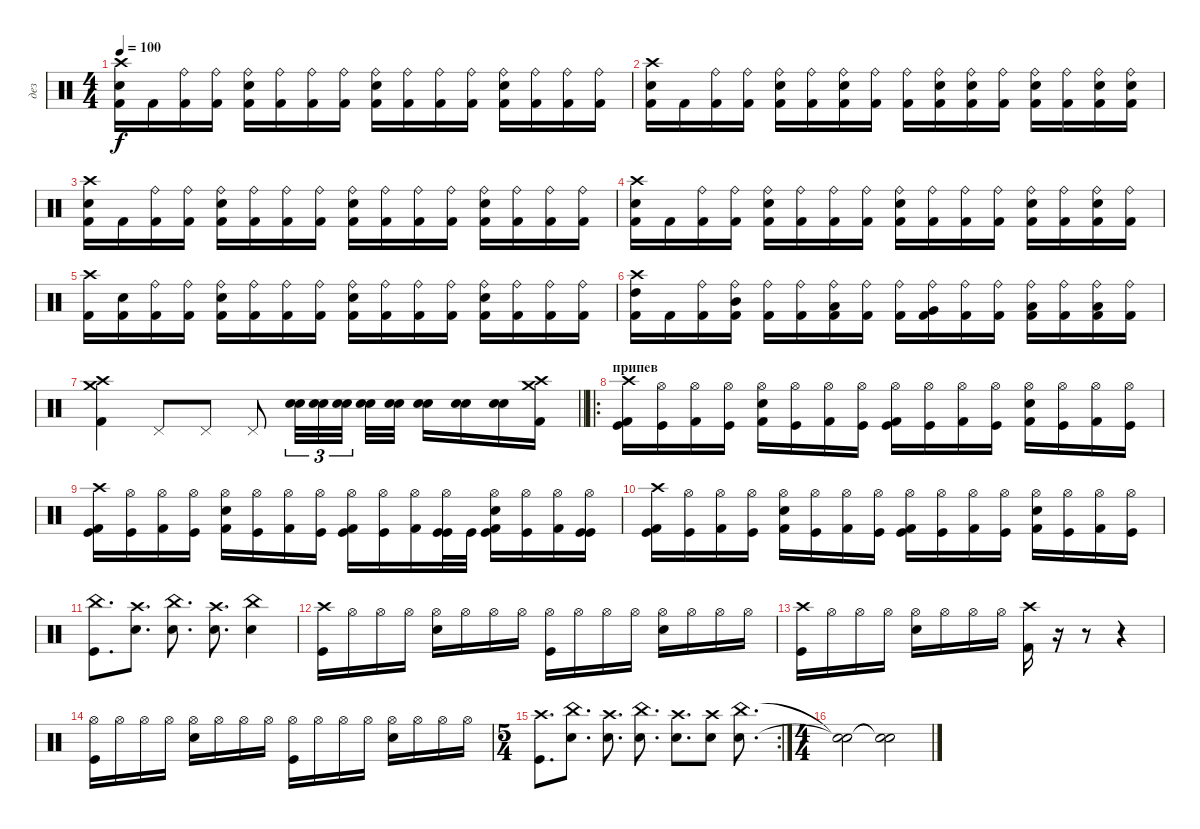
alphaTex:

\track ("дез" "дез") {instrument percussion}
\staff {score}
\articulation defaults
\ts (4 4)
\tempo 100
\clef neutral
\ks c
("Crash high (hit)" "Electric Snare (hit)" "Kick (hit) 2").16{dy f} "Kick (hit) 2".16 ("Ride (bell)" "Kick (hit) 2").16 ("Ride (bell)" "Kick (hit) 2").16 ("Ride (bell)" "Electric Snare (hit)" "Kick (hit) 2").16 ("Ride (bell)" "Kick (hit) 2").16 ("Ride (bell)" "Kick (hit) 2").16 ("Ride (bell)" "Kick (hit) 2").16 ("Ride (bell)" "Electric Snare (hit)" "Kick (hit) 2").16 ("Ride (bell)" "Kick (hit) 2").16 ("Ride (bell)" "Kick (hit) 2").16 ("Ride (bell)" "Kick (hit) 2").16 ("Ride (bell)" "Electric Snare (hit)" "Kick (hit) 2").16 ("Ride (bell)" "Kick (hit) 2").16 ("Ride (bell)" "Kick (hit) 2").16 ("Ride (bell)" "Kick (hit) 2").16 |
("Crash high (hit)" "Electric Snare (hit)" "Kick (hit) 2").16 "Kick (hit) 2".16 ("Ride (bell)" "Kick (hit) 2").16 ("Ride (bell)" "Kick (hit) 2").16 ("Ride (bell)" "Electric Snare (hit)" "Kick (hit) 2").16 ("Ride (bell)" "Kick (hit) 2").16 ("Ride (bell)" "Electric Snare (hit)" "Kick (hit) 2").16 ("Ride (bell)" "Kick (hit) 2").16 ("Ride (bell)" "Kick (hit) 2").16 ("Ride (bell)" "Electric Snare (hit)" "Kick (hit) 2").16 ("Ride (bell)" "Electric Snare (hit)" "Kick (hit) 2").16 ("Ride (bell)" "Kick (hit) 2").16 ("Ride (bell)" "Electric Snare (hit)" "Kick (hit) 2").16 ("Ride (bell)" "Kick (hit) 2").16 ("Ride (bell)" "Electric Snare (hit)" "Kick (hit) 2").16 ("Ride (bell)" "Electric Snare (hit)" "Kick (hit) 2").16 |
("Crash high (hit)" "Electric Snare (hit)" "Kick (hit) 2").16 "Kick (hit) 2".16 ("Ride (bell)" "Kick (hit) 2").16 ("Ride (bell)" "Kick (hit) 2").16 ("Ride (bell)" "Electric Snare (hit)" "Kick (hit) 2").16 ("Ride (bell)" "Kick (hit) 2").16 ("Ride (bell)" "Kick (hit) 2").16 ("Ride (bell)" "Kick (hit) 2").16 ("Ride (bell)" "Electric Snare (hit)" "Kick (hit) 2").16 ("Ride (bell)" "Kick (hit) 2").16 ("Ride (bell)" "Kick (hit) 2").16 ("Ride (bell)" "Kick (hit) 2").16 ("Ride (bell)" "Electric Snare (hit)" "Kick (hit) 2").16 ("Ride (bell)" "Kick (hit) 2").16 ("Ride (bell)" "Kick (hit) 2").16 ("Ride (bell)" "Kick (hit) 2").16 |
("Crash high (hit)" "Electric Snare (hit)" "Kick (hit) 2").16 "Kick (hit) 2".16 ("Ride (bell)" "Kick (hit) 2").16 ("Ride (bell)" "Kick (hit) 2").16 ("Ride (bell)" "Electric Snare (hit)" "Kick (hit) 2").16 ("Ride (bell)" "Kick (hit) 2").16 ("Ride (bell)" "Kick (hit) 2").16 ("Ride (bell)" "Kick (hit) 2").16 ("Ride (bell)" "Electric Snare (hit)" "Kick (hit) 2").16 ("Ride (bell)" "Kick (hit) 2").16 ("Ride (bell)" "Kick (hit) 2").16 ("Ride (bell)" "Kick (hit) 2").16 ("Ride (bell)" "Electric Snare (hit)" "Kick (hit) 2").16 ("Ride (bell)" "Kick (hit) 2").16 ("Ride (bell)" "Electric Snare (hit)" "Kick (hit) 2").16 ("Ride (bell)" "Kick (hit) 2").16 |
("Crash high (hit)" "Kick (hit) 2").16 ("Electric Snare (hit)" "Kick (hit) 2").16 ("Ride (bell)" "Kick (hit) 2").16 ("Ride (bell)" "Kick (hit) 2").16 ("Ride (bell)" "Electric Snare (hit)" "Kick (hit) 2").16 ("Ride (bell)" "Kick (hit) 2").16 ("Ride (bell)" "Kick (hit) 2").16 ("Ride (bell)" "Kick (hit) 2").16 ("Ride (bell)" "Electric Snare (hit)" "Kick (hit) 2").16 ("Ride (bell)" "Kick (hit) 2").16 ("Ride (bell)" "Kick (hit) 2").16 ("Ride (bell)" "Kick (hit) 2").16 ("Ride (bell)" "Electric Snare (hit)" "Kick (hit) 2").16 ("Ride (bell)" "Kick (hit) 2").16 ("Ride (bell)" "Kick (hit) 2").16 ("Ride (bell)" "Kick (hit) 2").16 |
("Crash high (hit)" "High Tom (hit)" "Kick (hit) 2").16 "Kick (hit) 2".16 ("Ride (bell)" "Kick (hit) 2").16 ("Ride (bell)" "Mid Tom (hit)" "Kick (hit) 2").16 ("Ride (bell)" "Kick (hit) 2").16 ("Ride (bell)" "Kick (hit) 2").16 ("Ride (bell)" "Low Tom (hit)" "Kick (hit) 2").16 ("Ride (bell)" "Kick (hit) 2").16 ("Ride (bell)" "Kick (hit) 2").16 ("Ride (bell)" "Very Low Tom (hit)" "Kick (hit) 2").16 ("Ride (bell)" "Kick (hit) 2").16 ("Ride (bell)" "Kick (hit) 2").16 ("Ride (bell)" "Low Floor Tom (hit)" "Kick (hit) 2").16 ("Ride (bell)" "Kick (hit) 2").16 ("Ride (bell)" "Low Floor Tom (hit)" "Kick (hit) 2").16 ("Ride (bell)" "Kick (hit) 2").16 |
\barLineRight lightlight
("Crash medium (hit)" "Crash high (hit)" "Kick (hit) 2").4 "Pedal Hi-Hat (hit)".8 "Pedal Hi-Hat (hit)".8 "Pedal Hi-Hat (hit)".8 ("Electric Snare (hit)" "Snare (hit) 2").32{tu (3 2)} ("Electric Snare (hit)" "Snare (hit) 2").32{tu (3 2)} ("Electric Snare (hit)" "Snare (hit) 2").32{tu (3 2) beam splitsecondary} ("Electric Snare (hit)" "Snare (hit) 2").32 ("Electric Snare (hit)" "Snare (hit) 2").32 ("Electric Snare (hit)" "Snare (hit) 2").16 ("Electric Snare (hit)" "Snare (hit) 2").16 ("Electric Snare (hit)" "Snare (hit) 2").16 ("Crash high (hit)" "Crash medium (hit)" "Kick (hit) 2").16 |
\ro
\section ("" "припев")
("Crash high (hit)" "Kick (hit) 2" "Kick (hit)").16 ("Hi-Hat (open)" "Kick (hit)").16 ("Hi-Hat (open)" "Kick (hit) 2").16 ("Hi-Hat (open)" "Kick (hit)").16 ("Hi-Hat (open)" "Kick (hit) 2" "Electric Snare (hit)").16 ("Hi-Hat (open)" "Kick (hit)").16 ("Hi-Hat (open)" "Kick (hit) 2").16 ("Hi-Hat (open)" "Kick (hit)").16 ("Hi-Hat (open)" "Kick (hit) 2" "Kick (hit)").16 ("Hi-Hat (open)" "Kick (hit)").16 ("Hi-Hat (open)" "Kick (hit) 2").16 ("Hi-Hat (open)" "Kick (hit)").16 ("Hi-Hat (open)" "Kick (hit) 2" "Electric Snare (hit)").16 ("Hi-Hat (open)" "Kick (hit)").16 ("Hi-Hat (open)" "Kick (hit) 2").16 ("Hi-Hat (open)" "Kick (hit)").16 |
("Crash high (hit)" "Kick (hit) 2" "Kick (hit)").16 ("Hi-Hat (open)" "Kick (hit)").16 ("Hi-Hat (open)" "Kick (hit) 2").16 ("Hi-Hat (open)" "Kick (hit)").16 ("Hi-Hat (open)" "Kick (hit) 2" "Electric Snare (hit)").16 ("Hi-Hat (open)" "Kick (hit)").16 ("Hi-Hat (open)" "Kick (hit) 2").16 ("Hi-Hat (open)" "Kick (hit)").16 ("Hi-Hat (open)" "Kick (hit) 2" "Kick (hit)").16 ("Hi-Hat (open)" "Kick (hit)").16 ("Hi-Hat (open)" "Kick (hit) 2").16 ("Hi-Hat (open)" "Kick (hit)" "Kick (hit)").32 "Kick (hit)".32 ("Hi-Hat (open)" "Kick (hit) 2" "Electric Snare (hit)" "Kick (hit)").16 ("Hi-Hat (open)" "Kick (hit)").16 ("Hi-Hat (open)" "Kick (hit) 2").16 ("Hi-Hat (open)" "Kick (hit)" "Kick (hit)").16 |
("Crash high (hit)" "Kick (hit) 2" "Kick (hit)").16 ("Hi-Hat (open)" "Kick (hit)").16 ("Hi-Hat (open)" "Kick (hit) 2").16 ("Hi-Hat (open)" "Kick (hit)").16 ("Hi-Hat (open)" "Kick (hit) 2" "Electric Snare (hit)").16 ("Hi-Hat (open)" "Kick (hit)").16 ("Hi-Hat (open)" "Kick (hit) 2").16 ("Hi-Hat (open)" "Kick (hit)").16 ("Hi-Hat (open)" "Kick (hit) 2" "Kick (hit)").16 ("Hi-Hat (open)" "Kick (hit)").16 ("Hi-Hat (open)" "Kick (hit) 2").16 ("Hi-Hat (open)" "Kick (hit)").16 ("Hi-Hat (open)" "Kick (hit) 2" "Electric Snare (hit)").16 ("Hi-Hat (open)" "Kick (hit)").16 ("Hi-Hat (open)" "Kick (hit) 2").16 ("Hi-Hat (open)" "Kick (hit)").16 |
("China (hit)" "Kick (hit)").8{d} ("Crash high (hit)" "Electric Snare (hit)").8{d} ("China (hit)" "Electric Snare (hit)").8{d} ("Crash high (hit)" "Electric Snare (hit)").8{d} ("China (hit)" "Electric Snare (hit)").4 |
("Crash high (hit)" "Kick (hit)").16 "Hi-Hat (open)".16 "Hi-Hat (open)".16 "Hi-Hat (open)".16 ("Hi-Hat (open)" "Electric Snare (hit)").16 "Hi-Hat (open)".16 "Hi-Hat (open)".16 "Hi-Hat (open)".16 ("Hi-Hat (open)" "Kick (hit)").16 "Hi-Hat (open)".16 "Hi-Hat (open)".16 "Hi-Hat (open)".16 ("Hi-Hat (open)" "Electric Snare (hit)").16 "Hi-Hat (open)".16 "Hi-Hat (open)".16 "Hi-Hat (open)".16 |
("Crash high (hit)" "Kick (hit)").16 "Hi-Hat (open)".16 "Hi-Hat (open)".16 "Hi-Hat (open)".16 ("Hi-Hat (open)" "Electric Snare (hit)").16 "Hi-Hat (open)".16 "Hi-Hat (open)".16 "Hi-Hat (open)".16 ("Crash high (hit)" "Kick (hit) 2").16 r.16 r.8 r.4 |
("Hi-Hat (open)" "Kick (hit)").16 "Hi-Hat (open)".16 "Hi-Hat (open)".16 "Hi-Hat (open)".16 ("Hi-Hat (open)" "Electric Snare (hit)").16 "Hi-Hat (open)".16 "Hi-Hat (open)".16 "Hi-Hat (open)".16 ("Hi-Hat (open)" "Kick (hit)").16 "Hi-Hat (open)".16 "Hi-Hat (open)".16 "Hi-Hat (open)".16 ("Hi-Hat (open)" "Electric Snare (hit)").16 "Hi-Hat (open)".16 "Hi-Hat (open)".16 "Hi-Hat (open)".16 |
\rc 2
\ts (5 4)
("Crash high (hit)" "Kick (hit)").8{d} ("China (hit)" "Electric Snare (hit)").8{d} ("Crash high (hit)" "Electric Snare (hit)").8{d} ("China (hit)" "Electric Snare (hit)").8{d} ("Crash high (hit)" "Electric Snare (hit)").8{d} ("Crash high (hit)" "Electric Snare (hit)").8 ("China (hit)" "Electric Snare (hit)").8{d} |
\ts (4 4)
("Snare (hit)"{t} "Snare (hit)"{t}).2 ("Snare (hit)"{t} "Snare (hit)"{t}).2
